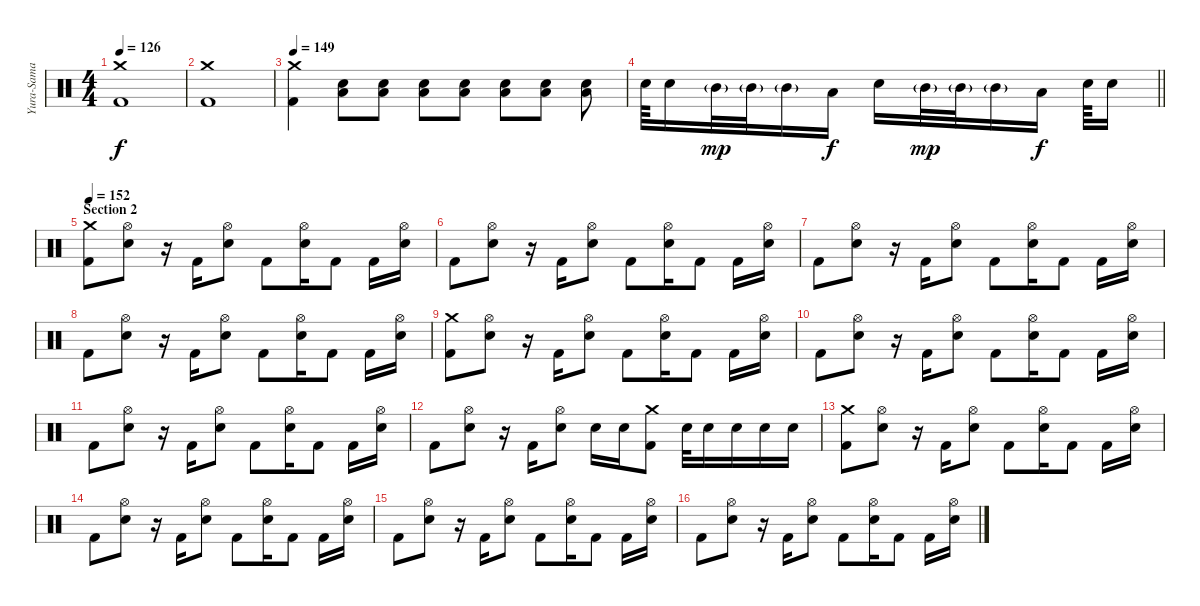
\track ("Yura-Sama" "Yura-Sama") {instrument percussion}
\staff {score}
\articulation defaults
\ts (4 4)
\tempo 126
\clef neutral
\ks c
("Kick (hit) 2" "Crash medium (hit)").1{dy f} |
("Kick (hit) 2" "Crash medium (hit)").1 |
\tempo 149
("Kick (hit) 2" "Crash medium (hit)").4 ("Electric Snare (hit)" "Low Floor Tom (hit)").8 ("Electric Snare (hit)" "Low Floor Tom (hit)").8 ("Electric Snare (hit)" "Low Floor Tom (hit)").8 ("Electric Snare (hit)" "Low Floor Tom (hit)").8 ("Electric Snare (hit)" "Low Floor Tom (hit)").8 ("Electric Snare (hit)" "Low Floor Tom (hit)").8 ("Electric Snare (hit)" "Low Floor Tom (hit)").8 |
\barLineRight lightlight "Electric Snare (hit)".64 "Electric Snare (hit)".16 "Mid Tom (hit)"{g}.32{dy mp} "Mid Tom (hit)"{g}.32 "Mid Tom (hit)"{g}.16 "Low Tom (hit)".16{dy f} "Electric Snare (hit)".16 "Mid Tom (hit)"{g}.32{dy mp} "Mid Tom (hit)"{g}.32 "Mid Tom (hit)"{g}.16 "Low Tom (hit)".16{dy f} "Electric Snare (hit)".64 "Electric Snare (hit)".16
|
\section ("" "Section 2")
\tempo 152
("Kick (hit) 2" "Crash medium (hit)").8 ("Electric Snare (hit)" "Hi-Hat (open)").8 r.16 "Kick (hit) 2".16 ("Electric Snare (hit)" "Hi-Hat (open)").8 "Kick (hit) 2".8 ("Electric Snare (hit)" "Hi-Hat (open)").16 "Kick (hit) 2".8 "Kick (hit) 2".16 ("Electric Snare (hit)" "Hi-Hat (open)").16 |
"Kick (hit) 2".8 ("Electric Snare (hit)" "Hi-Hat (open)").8 r.16 "Kick (hit) 2".16 ("Electric Snare (hit)" "Hi-Hat (open)").8 "Kick (hit) 2".8 ("Electric Snare (hit)" "Hi-Hat (open)").16 "Kick (hit) 2".8 "Kick (hit) 2".16 ("Electric Snare (hit)" "Hi-Hat (open)").16 |
"Kick (hit) 2".8 ("Electric Snare (hit)" "Hi-Hat (open)").8 r.16 "Kick (hit) 2".16 ("Electric Snare (hit)" "Hi-Hat (open)").8 "Kick (hit) 2".8 ("Electric Snare (hit)" "Hi-Hat (open)").16 "Kick (hit) 2".8 "Kick (hit) 2".16 ("Electric Snare (hit)" "Hi-Hat (open)").16 |
"Kick (hit) 2".8 ("Electric Snare (hit)" "Hi-Hat (open)").8 r.16 "Kick (hit) 2".16 ("Electric Snare (hit)" "Hi-Hat (open)").8 "Kick (hit) 2".8 ("Electric Snare (hit)" "Hi-Hat (open)").16 "Kick (hit) 2".8 "Kick (hit) 2".16 ("Electric Snare (hit)" "Hi-Hat (open)").16 |
("Kick (hit) 2" "Crash medium (hit)").8 ("Electric Snare (hit)" "Hi-Hat (open)").8 r.16 "Kick (hit) 2".16 ("Electric Snare (hit)" "Hi-Hat (open)").8 "Kick (hit) 2".8 ("Electric Snare (hit)" "Hi-Hat (open)").16 "Kick (hit) 2".8 "Kick (hit) 2".16 ("Electric Snare (hit)" "Hi-Hat (open)").16 |
"Kick (hit) 2".8 ("Electric Snare (hit)" "Hi-Hat (open)").8 r.16 "Kick (hit) 2".16 ("Electric Snare (hit)" "Hi-Hat (open)").8 "Kick (hit) 2".8 ("Electric Snare (hit)" "Hi-Hat (open)").16 "Kick (hit) 2".8 "Kick (hit) 2".16 ("Electric Snare (hit)" "Hi-Hat (open)").16 |
"Kick (hit) 2".8 ("Electric Snare (hit)" "Hi-Hat (open)").8 r.16 "Kick (hit) 2".16 ("Electric Snare (hit)" "Hi-Hat (open)").8 "Kick (hit) 2".8 ("Electric Snare (hit)" "Hi-Hat (open)").16 "Kick (hit) 2".8 "Kick (hit) 2".16 ("Electric Snare (hit)" "Hi-Hat (open)").16 |
"Kick (hit) 2".8 ("Electric Snare (hit)" "Hi-Hat (open)").8 r.16 "Kick (hit) 2".16 ("Electric Snare (hit)" "Hi-Hat (open)").8 "Electric Snare (hit)".16 "Electric Snare (hit)".16 ("Kick (hit) 2" "Crash medium (hit)").8 "Electric Snare (hit)".32 "Electric Snare (hit)".16 "Electric Snare (hit)".16 "Electric Snare (hit)".16 "Electric Snare (hit)".16 |
("Kick (hit) 2" "Crash medium (hit)").8 ("Electric Snare (hit)" "Hi-Hat (open)").8 r.16 "Kick (hit) 2".16 ("Electric Snare (hit)" "Hi-Hat (open)").8 "Kick (hit) 2".8 ("Electric Snare (hit)" "Hi-Hat (open)").16 "Kick (hit) 2".8 "Kick (hit) 2".16 ("Electric Snare (hit)" "Hi-Hat (open)").16 |
"Kick (hit) 2".8 ("Electric Snare (hit)" "Hi-Hat (open)").8 r.16 "Kick (hit) 2".16 ("Electric Snare (hit)" "Hi-Hat (open)").8 "Kick (hit) 2".8 ("Electric Snare (hit)" "Hi-Hat (open)").16 "Kick (hit) 2".8 "Kick (hit) 2".16 ("Electric Snare (hit)" "Hi-Hat (open)").16 |
"Kick (hit) 2".8 ("Electric Snare (hit)" "Hi-Hat (open)").8 r.16 "Kick (hit) 2".16 ("Electric Snare (hit)" "Hi-Hat (open)").8 "Kick (hit) 2".8 ("Electric Snare (hit)" "Hi-Hat (open)").16 "Kick (hit) 2".8 "Kick (hit) 2".16 ("Electric Snare (hit)" "Hi-Hat (open)").16 |
"Kick (hit) 2".8 ("Electric Snare (hit)" "Hi-Hat (open)").8 r.16 "Kick (hit) 2".16 ("Electric Snare (hit)" "Hi-Hat (open)").8 "Kick (hit) 2".8 ("Electric Snare (hit)" "Hi-Hat (open)").16 "Kick (hit) 2".8 "Kick (hit) 2".16 ("Electric Snare (hit)" "Hi-Hat (open)").16
